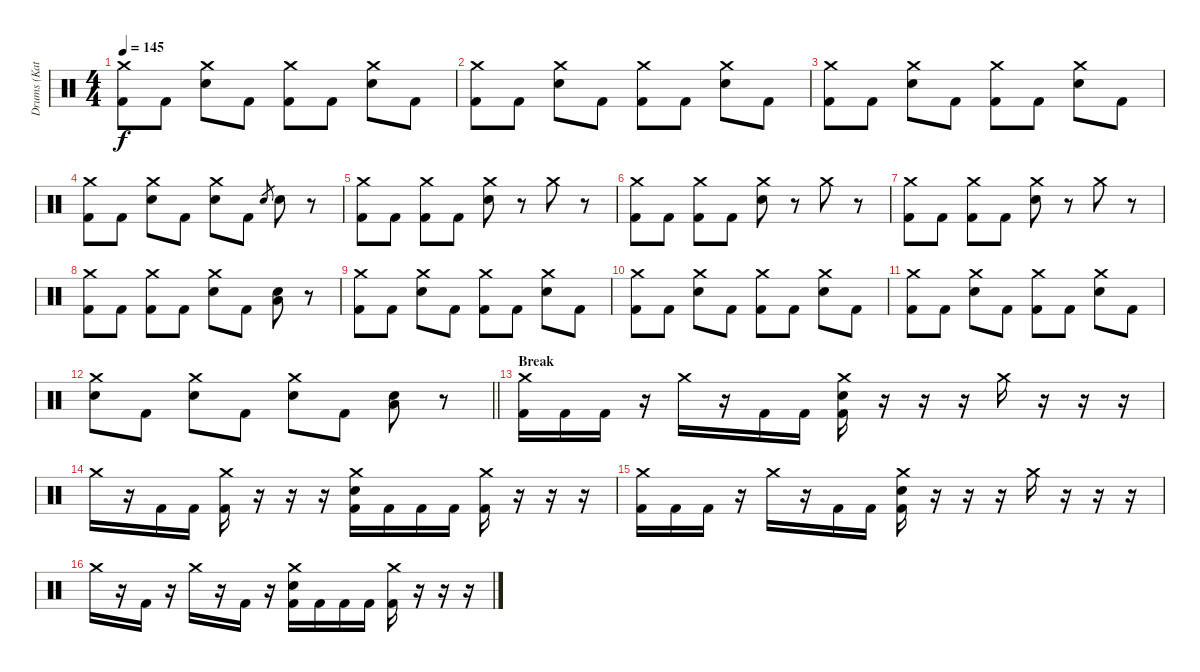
\track ("Drums (Katsuma)" "Drums (Kat") {instrument percussion}
\staff {score}
\articulation defaults
\ts (4 4)
\tempo 145
\clef neutral
\ks c
("Crash medium (hit)" "Kick (hit) 2").8{dy f} "Kick (hit) 2".8 ("Crash medium (hit)" "Electric Snare (hit)").8 "Kick (hit) 2".8 ("Crash medium (hit)" "Kick (hit) 2").8 "Kick (hit) 2".8 ("Crash medium (hit)" "Electric Snare (hit)").8 "Kick (hit) 2".8 |
("Crash medium (hit)" "Kick (hit) 2").8 "Kick (hit) 2".8 ("Crash medium (hit)" "Electric Snare (hit)").8 "Kick (hit) 2".8 ("Crash medium (hit)" "Kick (hit) 2").8 "Kick (hit) 2".8 ("Crash medium (hit)" "Electric Snare (hit)").8 "Kick (hit) 2".8 |
("Crash medium (hit)" "Kick (hit) 2").8 "Kick (hit) 2".8 ("Crash medium (hit)" "Electric Snare (hit)").8 "Kick (hit) 2".8 ("Crash medium (hit)" "Kick (hit) 2").8 "Kick (hit) 2".8 ("Crash medium (hit)" "Electric Snare (hit)").8 "Kick (hit) 2".8 |
("Crash medium (hit)" "Kick (hit) 2").8 "Kick (hit) 2".8 ("Crash medium (hit)" "Electric Snare (hit)").8 "Kick (hit) 2".8 ("Crash medium (hit)" "Electric Snare (hit)").8 "Kick (hit) 2".8 "Electric Snare (hit)".8{gr} "Electric Snare (hit)".8 r.8 |
("Crash medium (hit)" "Kick (hit) 2").8 "Kick (hit) 2".8 ("Crash medium (hit)" "Kick (hit) 2").8 "Kick (hit) 2".8 ("Crash medium (hit)" "Electric Snare (hit)").8 r.8 "Crash medium (hit)".8 r.8 |
("Crash medium (hit)" "Kick (hit) 2").8 "Kick (hit) 2".8 ("Crash medium (hit)" "Kick (hit) 2").8 "Kick (hit) 2".8 ("Crash medium (hit)" "Electric Snare (hit)").8 r.8 "Crash medium (hit)".8 r.8 |
("Crash medium (hit)" "Kick (hit) 2").8 "Kick (hit) 2".8 ("Crash medium (hit)" "Kick (hit) 2").8 "Kick (hit) 2".8 ("Crash medium (hit)" "Electric Snare (hit)").8 r.8 "Crash medium (hit)".8 r.8 |
("Crash medium (hit)" "Kick (hit) 2").8 "Kick (hit) 2".8 ("Crash medium (hit)" "Kick (hit) 2").8 "Kick (hit) 2".8 ("Crash medium (hit)" "Electric Snare (hit)").8 "Kick (hit) 2".8 ("Electric Snare (hit)" "Low Tom (hit)").8 r.8 |
("Crash medium (hit)" "Kick (hit) 2").8 "Kick (hit) 2".8 ("Crash medium (hit)" "Electric Snare (hit)").8 "Kick (hit) 2".8 ("Crash medium (hit)" "Kick (hit) 2").8 "Kick (hit) 2".8 ("Crash medium (hit)" "Electric Snare (hit)").8 "Kick (hit) 2".8 |
("Crash medium (hit)" "Kick (hit) 2").8 "Kick (hit) 2".8 ("Crash medium (hit)" "Electric Snare (hit)").8 "Kick (hit) 2".8 ("Crash medium (hit)" "Kick (hit) 2").8 "Kick (hit) 2".8 ("Crash medium (hit)" "Electric Snare (hit)").8 "Kick (hit) 2".8 |
("Crash medium (hit)" "Kick (hit) 2").8 "Kick (hit) 2".8 ("Crash medium (hit)" "Electric Snare (hit)").8 "Kick (hit) 2".8 ("Crash medium (hit)" "Kick (hit) 2").8 "Kick (hit) 2".8 ("Crash medium (hit)" "Electric Snare (hit)").8 "Kick (hit) 2".8 |
\barLineRight lightlight
("Crash medium (hit)" "Electric Snare (hit)").8 "Kick (hit) 2".8 ("Crash medium (hit)" "Electric Snare (hit)").8 "Kick (hit) 2".8 ("Crash medium (hit)" "Electric Snare (hit)").8 "Kick (hit) 2".8 ("Electric Snare (hit)" "Low Tom (hit)").8 r.8 |
\section ("" "Break")
("Crash medium (hit)" "Kick (hit) 2").16 "Kick (hit) 2".16 "Kick (hit) 2".16 r.16 "Crash medium (hit)".16 r.16 "Kick (hit) 2".16 "Kick (hit) 2".16 ("Crash medium (hit)" "Electric Snare (hit)" "Kick (hit) 2").16 r.16 r.16 r.16 "Crash medium (hit)".16 r.16 r.16 r.16 |
"Crash medium (hit)".16 r.16 "Kick (hit) 2".16 "Kick (hit) 2".16 ("Crash medium (hit)" "Kick (hit) 2").16 r.16 r.16 r.16 ("Crash medium (hit)" "Electric Snare (hit)" "Kick (hit) 2").16 "Kick (hit) 2".16 "Kick (hit) 2".16 "Kick (hit) 2".16 ("Crash medium (hit)" "Kick (hit) 2").16 r.16 r.16 r.16 |
("Crash medium (hit)" "Kick (hit) 2").16 "Kick (hit) 2".16 "Kick (hit) 2".16 r.16 "Crash medium (hit)".16 r.16 "Kick (hit) 2".16 "Kick (hit) 2".16 ("Crash medium (hit)" "Electric Snare (hit)" "Kick (hit) 2").16 r.16 r.16 r.16 "Crash medium (hit)".16 r.16 r.16 r.16 |
"Crash medium (hit)".16 r.16 "Kick (hit) 2".16 r.16 "Crash medium (hit)".16 r.16 "Kick (hit) 2".16 r.16 ("Crash medium (hit)" "Electric Snare (hit)" "Kick (hit) 2").16 "Kick (hit) 2".16 "Kick (hit) 2".16 "Kick (hit) 2".16 ("Crash medium (hit)" "Kick (hit) 2").16 r.16 r.16 r.16
